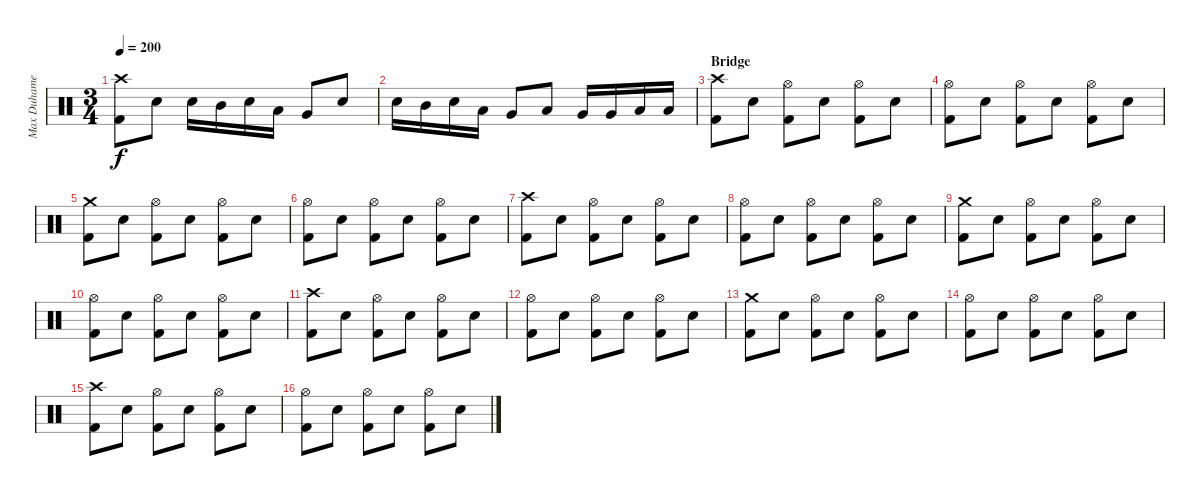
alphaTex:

\track ("Max Duhamel" "Max Duhame") {instrument percussion}
\staff {score}
\articulation defaults
\ts (3 4)
\tempo 200
\clef neutral
\ks c
("Crash high (hit)" "Kick (hit) 2").8{dy f} "Electric Snare (hit)".8 "Electric Snare (hit)".16 "Mid Tom (hit)".16 "Electric Snare (hit)".16 "Low Tom (hit)".16 "Very Low Tom (hit)".8 "Electric Snare (hit)".8 |
"Electric Snare (hit)".16 "Mid Tom (hit)".16 "Electric Snare (hit)".16 "Low Tom (hit)".16 "Very Low Tom (hit)".8 "Low Tom (hit)".8 "Very Low Tom (hit)".16 "Very Low Tom (hit)".16 "Low Floor Tom (hit)".16 "Low Floor Tom (hit)".16 |
\section ("" "Bridge")
("Crash high (hit)" "Kick (hit) 2").8 "Electric Snare (hit)".8 ("Hi-Hat (open)" "Kick (hit) 2").8 "Electric Snare (hit)".8 ("Hi-Hat (open)" "Kick (hit) 2").8 "Electric Snare (hit)".8 |
("Hi-Hat (open)" "Kick (hit) 2").8 "Electric Snare (hit)".8 ("Hi-Hat (open)" "Kick (hit) 2").8 "Electric Snare (hit)".8 ("Hi-Hat (open)" "Kick (hit) 2").8 "Electric Snare (hit)".8 |
("Crash medium (hit)" "Kick (hit) 2").8 "Electric Snare (hit)".8 ("Hi-Hat (open)" "Kick (hit) 2").8 "Electric Snare (hit)".8 ("Hi-Hat (open)" "Kick (hit) 2").8 "Electric Snare (hit)".8 |
("Hi-Hat (open)" "Kick (hit) 2").8 "Electric Snare (hit)".8 ("Hi-Hat (open)" "Kick (hit) 2").8 "Electric Snare (hit)".8 ("Hi-Hat (open)" "Kick (hit) 2").8 "Electric Snare (hit)".8 |
("Crash high (hit)" "Kick (hit) 2").8 "Electric Snare (hit)".8 ("Hi-Hat (open)" "Kick (hit) 2").8 "Electric Snare (hit)".8 ("Hi-Hat (open)" "Kick (hit) 2").8 "Electric Snare (hit)".8 |
("Hi-Hat (open)" "Kick (hit) 2").8 "Electric Snare (hit)".8 ("Hi-Hat (open)" "Kick (hit) 2").8 "Electric Snare (hit)".8 ("Hi-Hat (open)" "Kick (hit) 2").8 "Electric Snare (hit)".8 |
("Crash medium (hit)" "Kick (hit) 2").8 "Electric Snare (hit)".8 ("Hi-Hat (open)" "Kick (hit) 2").8 "Electric Snare (hit)".8 ("Hi-Hat (open)" "Kick (hit) 2").8 "Electric Snare (hit)".8 |
("Hi-Hat (open)" "Kick (hit) 2").8 "Electric Snare (hit)".8 ("Hi-Hat (open)" "Kick (hit) 2").8 "Electric Snare (hit)".8 ("Hi-Hat (open)" "Kick (hit) 2").8 "Electric Snare (hit)".8 |
\section ("" "")
("Crash high (hit)" "Kick (hit) 2").8 "Electric Snare (hit)".8 ("Hi-Hat (open)" "Kick (hit) 2").8 "Electric Snare (hit)".8 ("Hi-Hat (open)" "Kick (hit) 2").8 "Electric Snare (hit)".8 |
("Hi-Hat (open)" "Kick (hit) 2").8 "Electric Snare (hit)".8 ("Hi-Hat (open)" "Kick (hit) 2").8 "Electric Snare (hit)".8 ("Hi-Hat (open)" "Kick (hit) 2").8 "Electric Snare (hit)".8 |
("Crash medium (hit)" "Kick (hit) 2").8 "Electric Snare (hit)".8 ("Hi-Hat (open)" "Kick (hit) 2").8 "Electric Snare (hit)".8 ("Hi-Hat (open)" "Kick (hit) 2").8 "Electric Snare (hit)".8 |
("Hi-Hat (open)" "Kick (hit) 2").8 "Electric Snare (hit)".8 ("Hi-Hat (open)" "Kick (hit) 2").8 "Electric Snare (hit)".8 ("Hi-Hat (open)" "Kick (hit) 2").8 "Electric Snare (hit)".8 |
("Crash high (hit)" "Kick (hit) 2").8 "Electric Snare (hit)".8 ("Hi-Hat (open)" "Kick (hit) 2").8 "Electric Snare (hit)".8 ("Hi-Hat (open)" "Kick (hit) 2").8 "Electric Snare (hit)".8 |
("Hi-Hat (open)" "Kick (hit) 2").8 "Electric Snare (hit)".8 ("Hi-Hat (open)" "Kick (hit) 2").8 "Electric Snare (hit)".8 ("Hi-Hat (open)" "Kick (hit) 2").8 "Electric Snare (hit)".8
